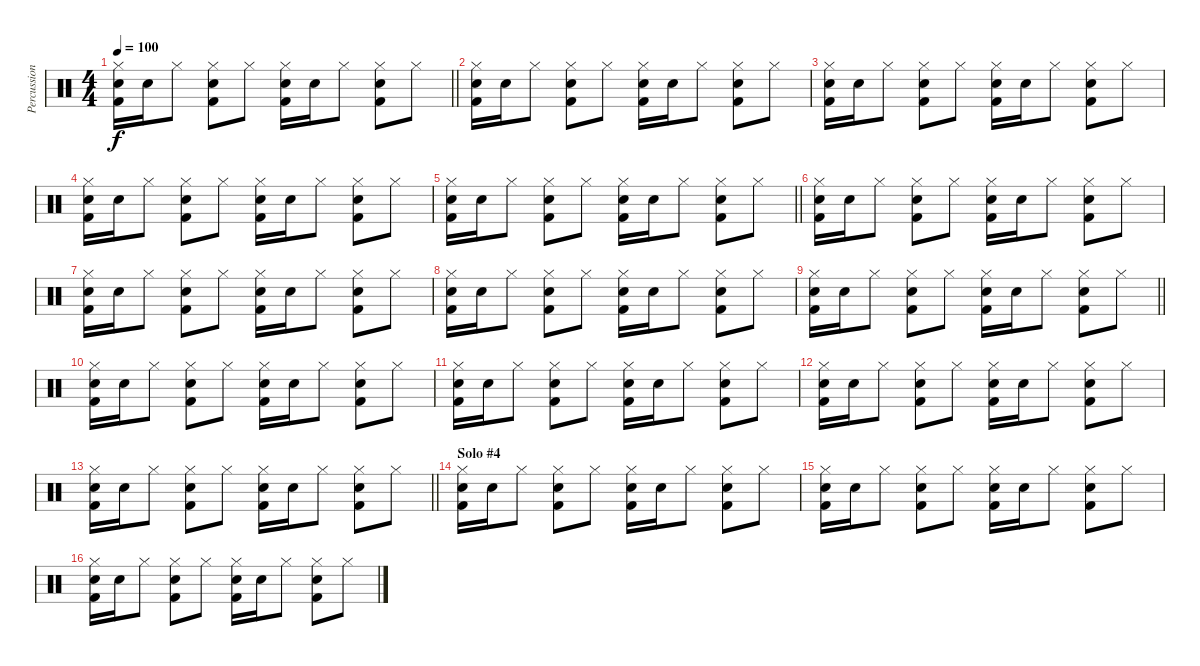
\track ("Percussion" "Percussion") {instrument percussion}
\staff {score}
\articulation defaults
\ts (4 4)
\tempo 100
\clef neutral
\barLineRight lightlight
\ks c
("Snare (hit) 2" "Hi-Hat (closed)" "Kick (hit) 2").16{dy f} "Snare (hit) 2".16 "Hi-Hat (closed)".8 ("Snare (hit) 2" "Hi-Hat (closed)" "Kick (hit) 2").8 "Hi-Hat (closed)".8 ("Snare (hit) 2" "Hi-Hat (closed)" "Kick (hit) 2").16 "Snare (hit) 2".16 "Hi-Hat (closed)".8 ("Snare (hit) 2" "Hi-Hat (closed)" "Kick (hit) 2").8 "Hi-Hat (closed)".8 |
("Snare (hit) 2" "Hi-Hat (closed)" "Kick (hit) 2").16 "Snare (hit) 2".16 "Hi-Hat (closed)".8 ("Snare (hit) 2" "Hi-Hat (closed)" "Kick (hit) 2").8 "Hi-Hat (closed)".8 ("Snare (hit) 2" "Hi-Hat (closed)" "Kick (hit) 2").16 "Snare (hit) 2".16 "Hi-Hat (closed)".8 ("Snare (hit) 2" "Hi-Hat (closed)" "Kick (hit) 2").8 "Hi-Hat (closed)".8 |
("Snare (hit) 2" "Hi-Hat (closed)" "Kick (hit) 2").16 "Snare (hit) 2".16 "Hi-Hat (closed)".8 ("Snare (hit) 2" "Hi-Hat (closed)" "Kick (hit) 2").8 "Hi-Hat (closed)".8 ("Snare (hit) 2" "Hi-Hat (closed)" "Kick (hit) 2").16 "Snare (hit) 2".16 "Hi-Hat (closed)".8 ("Snare (hit) 2" "Hi-Hat (closed)" "Kick (hit) 2").8 "Hi-Hat (closed)".8 |
("Snare (hit) 2" "Hi-Hat (closed)" "Kick (hit) 2").16 "Snare (hit) 2".16 "Hi-Hat (closed)".8 ("Snare (hit) 2" "Hi-Hat (closed)" "Kick (hit) 2").8 "Hi-Hat (closed)".8 ("Snare (hit) 2" "Hi-Hat (closed)" "Kick (hit) 2").16 "Snare (hit) 2".16 "Hi-Hat (closed)".8 ("Snare (hit) 2" "Hi-Hat (closed)" "Kick (hit) 2").8 "Hi-Hat (closed)".8 |
\barLineRight lightlight
("Snare (hit) 2" "Hi-Hat (closed)" "Kick (hit) 2").16 "Snare (hit) 2".16 "Hi-Hat (closed)".8 ("Snare (hit) 2" "Hi-Hat (closed)" "Kick (hit) 2").8 "Hi-Hat (closed)".8 ("Snare (hit) 2" "Hi-Hat (closed)" "Kick (hit) 2").16 "Snare (hit) 2".16 "Hi-Hat (closed)".8 ("Snare (hit) 2" "Hi-Hat (closed)" "Kick (hit) 2").8 "Hi-Hat (closed)".8 |
("Snare (hit) 2" "Hi-Hat (closed)" "Kick (hit) 2").16 "Snare (hit) 2".16 "Hi-Hat (closed)".8 ("Snare (hit) 2" "Hi-Hat (closed)" "Kick (hit) 2").8 "Hi-Hat (closed)".8 ("Snare (hit) 2" "Hi-Hat (closed)" "Kick (hit) 2").16 "Snare (hit) 2".16 "Hi-Hat (closed)".8 ("Snare (hit) 2" "Hi-Hat (closed)" "Kick (hit) 2").8 "Hi-Hat (closed)".8 |
("Snare (hit) 2" "Hi-Hat (closed)" "Kick (hit) 2").16 "Snare (hit) 2".16 "Hi-Hat (closed)".8 ("Snare (hit) 2" "Hi-Hat (closed)" "Kick (hit) 2").8 "Hi-Hat (closed)".8 ("Snare (hit) 2" "Hi-Hat (closed)" "Kick (hit) 2").16 "Snare (hit) 2".16 "Hi-Hat (closed)".8 ("Snare (hit) 2" "Hi-Hat (closed)" "Kick (hit) 2").8 "Hi-Hat (closed)".8 |
("Snare (hit) 2" "Hi-Hat (closed)" "Kick (hit) 2").16 "Snare (hit) 2".16 "Hi-Hat (closed)".8 ("Snare (hit) 2" "Hi-Hat (closed)" "Kick (hit) 2").8 "Hi-Hat (closed)".8 ("Snare (hit) 2" "Hi-Hat (closed)" "Kick (hit) 2").16 "Snare (hit) 2".16 "Hi-Hat (closed)".8 ("Snare (hit) 2" "Hi-Hat (closed)" "Kick (hit) 2").8 "Hi-Hat (closed)".8 |
\barLineRight lightlight
("Snare (hit) 2" "Hi-Hat (closed)" "Kick (hit) 2").16 "Snare (hit) 2".16 "Hi-Hat (closed)".8 ("Snare (hit) 2" "Hi-Hat (closed)" "Kick (hit) 2").8 "Hi-Hat (closed)".8 ("Snare (hit) 2" "Hi-Hat (closed)" "Kick (hit) 2").16 "Snare (hit) 2".16 "Hi-Hat (closed)".8 ("Snare (hit) 2" "Hi-Hat (closed)" "Kick (hit) 2").8 "Hi-Hat (closed)".8 |
("Snare (hit) 2" "Hi-Hat (closed)" "Kick (hit) 2").16 "Snare (hit) 2".16 "Hi-Hat (closed)".8 ("Snare (hit) 2" "Hi-Hat (closed)" "Kick (hit) 2").8 "Hi-Hat (closed)".8 ("Snare (hit) 2" "Hi-Hat (closed)" "Kick (hit) 2").16 "Snare (hit) 2".16 "Hi-Hat (closed)".8 ("Snare (hit) 2" "Hi-Hat (closed)" "Kick (hit) 2").8 "Hi-Hat (closed)".8 |
("Snare (hit) 2" "Hi-Hat (closed)" "Kick (hit) 2").16 "Snare (hit) 2".16 "Hi-Hat (closed)".8 ("Snare (hit) 2" "Hi-Hat (closed)" "Kick (hit) 2").8 "Hi-Hat (closed)".8 ("Snare (hit) 2" "Hi-Hat (closed)" "Kick (hit) 2").16 "Snare (hit) 2".16 "Hi-Hat (closed)".8 ("Snare (hit) 2" "Hi-Hat (closed)" "Kick (hit) 2").8 "Hi-Hat (closed)".8 |
("Snare (hit) 2" "Hi-Hat (closed)" "Kick (hit) 2").16 "Snare (hit) 2".16 "Hi-Hat (closed)".8 ("Snare (hit) 2" "Hi-Hat (closed)" "Kick (hit) 2").8 "Hi-Hat (closed)".8 ("Snare (hit) 2" "Hi-Hat (closed)" "Kick (hit) 2").16 "Snare (hit) 2".16 "Hi-Hat (closed)".8 ("Snare (hit) 2" "Hi-Hat (closed)" "Kick (hit) 2").8 "Hi-Hat (closed)".8 |
\barLineRight lightlight
("Snare (hit) 2" "Hi-Hat (closed)" "Kick (hit) 2").16 "Snare (hit) 2".16 "Hi-Hat (closed)".8 ("Snare (hit) 2" "Hi-Hat (closed)" "Kick (hit) 2").8 "Hi-Hat (closed)".8 ("Snare (hit) 2" "Hi-Hat (closed)" "Kick (hit) 2").16 "Snare (hit) 2".16 "Hi-Hat (closed)".8 ("Snare (hit) 2" "Hi-Hat (closed)" "Kick (hit) 2").8 "Hi-Hat (closed)".8 |
\section ("" "Solo #4")
("Snare (hit) 2" "Hi-Hat (closed)" "Kick (hit) 2").16 "Snare (hit) 2".16 "Hi-Hat (closed)".8 ("Snare (hit) 2" "Hi-Hat (closed)" "Kick (hit) 2").8 "Hi-Hat (closed)".8 ("Snare (hit) 2" "Hi-Hat (closed)" "Kick (hit) 2").16 "Snare (hit) 2".16 "Hi-Hat (closed)".8 ("Snare (hit) 2" "Hi-Hat (closed)" "Kick (hit) 2").8 "Hi-Hat (closed)".8 |
("Snare (hit) 2" "Hi-Hat (closed)" "Kick (hit) 2").16 "Snare (hit) 2".16 "Hi-Hat (closed)".8 ("Snare (hit) 2" "Hi-Hat (closed)" "Kick (hit) 2").8 "Hi-Hat (closed)".8 ("Snare (hit) 2" "Hi-Hat (closed)" "Kick (hit) 2").16 "Snare (hit) 2".16 "Hi-Hat (closed)".8 ("Snare (hit) 2" "Hi-Hat (closed)" "Kick (hit) 2").8 "Hi-Hat (closed)".8 |
("Snare (hit) 2" "Hi-Hat (closed)" "Kick (hit) 2").16 "Snare (hit) 2".16 "Hi-Hat (closed)".8 ("Snare (hit) 2" "Hi-Hat (closed)" "Kick (hit) 2").8 "Hi-Hat (closed)".8 ("Snare (hit) 2" "Hi-Hat (closed)" "Kick (hit) 2").16 "Snare (hit) 2".16 "Hi-Hat (closed)".8 ("Snare (hit) 2" "Hi-Hat (closed)" "Kick (hit) 2").8 "Hi-Hat (closed)".8
